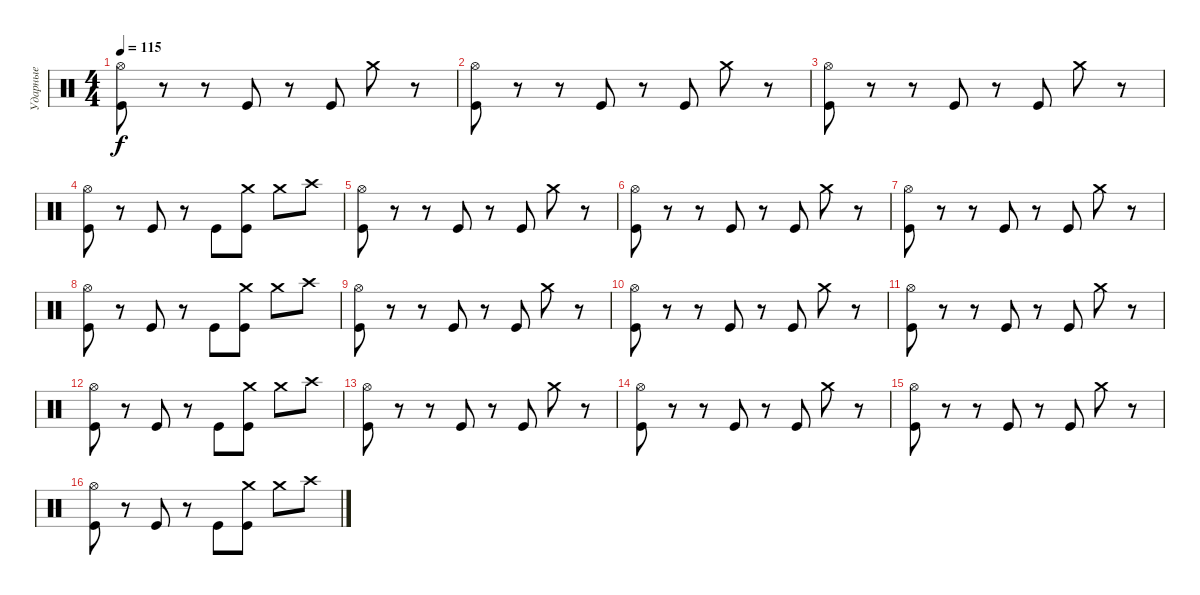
\track ("Ударные" "Ударные") {instrument percussion}
\staff {score}
\articulation defaults
\ts (4 4)
\tempo 115
\clef neutral
\ks c
("Hi-Hat (open)" "Kick (hit)").8{dy f} r.8 r.8 "Kick (hit)".8 r.8 "Kick (hit)".8 "Crash medium (hit)".8 r.8 |
("Hi-Hat (open)" "Kick (hit)").8 r.8 r.8 "Kick (hit)".8 r.8 "Kick (hit)".8 "Crash medium (hit)".8 r.8 |
("Hi-Hat (open)" "Kick (hit)").8 r.8 r.8 "Kick (hit)".8 r.8 "Kick (hit)".8 "Crash medium (hit)".8 r.8 |
("Hi-Hat (open)" "Kick (hit)").8 r.8 "Kick (hit)".8 r.8 "Kick (hit)".8 ("Crash medium (hit)" "Kick (hit)").8 "Crash medium (hit)".8 "Crash high (hit)".8 |
("Hi-Hat (open)" "Kick (hit)").8 r.8 r.8 "Kick (hit)".8 r.8 "Kick (hit)".8 "Crash medium (hit)".8 r.8 |
("Hi-Hat (open)" "Kick (hit)").8 r.8 r.8 "Kick (hit)".8 r.8 "Kick (hit)".8 "Crash medium (hit)".8 r.8 |
("Hi-Hat (open)" "Kick (hit)").8 r.8 r.8 "Kick (hit)".8 r.8 "Kick (hit)".8 "Crash medium (hit)".8 r.8 |
("Hi-Hat (open)" "Kick (hit)").8 r.8 "Kick (hit)".8 r.8 "Kick (hit)".8 ("Crash medium (hit)" "Kick (hit)").8 "Crash medium (hit)".8 "Crash high (hit)".8 |
("Hi-Hat (open)" "Kick (hit)").8 r.8 r.8 "Kick (hit)".8 r.8 "Kick (hit)".8 "Crash medium (hit)".8 r.8 |
("Hi-Hat (open)" "Kick (hit)").8 r.8 r.8 "Kick (hit)".8 r.8 "Kick (hit)".8 "Crash medium (hit)".8 r.8 |
("Hi-Hat (open)" "Kick (hit)").8 r.8 r.8 "Kick (hit)".8 r.8 "Kick (hit)".8 "Crash medium (hit)".8 r.8 |
("Hi-Hat (open)" "Kick (hit)").8 r.8 "Kick (hit)".8 r.8 "Kick (hit)".8 ("Crash medium (hit)" "Kick (hit)").8 "Crash medium (hit)".8 "Crash high (hit)".8 |
("Hi-Hat (open)" "Kick (hit)").8 r.8 r.8 "Kick (hit)".8 r.8 "Kick (hit)".8 "Crash medium (hit)".8 r.8 |
("Hi-Hat (open)" "Kick (hit)").8 r.8 r.8 "Kick (hit)".8 r.8 "Kick (hit)".8 "Crash medium (hit)".8 r.8 |
("Hi-Hat (open)" "Kick (hit)").8 r.8 r.8 "Kick (hit)".8 r.8 "Kick (hit)".8 "Crash medium (hit)".8 r.8 |
("Hi-Hat (open)" "Kick (hit)").8 r.8 "Kick (hit)".8 r.8 "Kick (hit)".8 ("Crash medium (hit)" "Kick (hit)").8 "Crash medium (hit)".8 "Crash high (hit)".8
